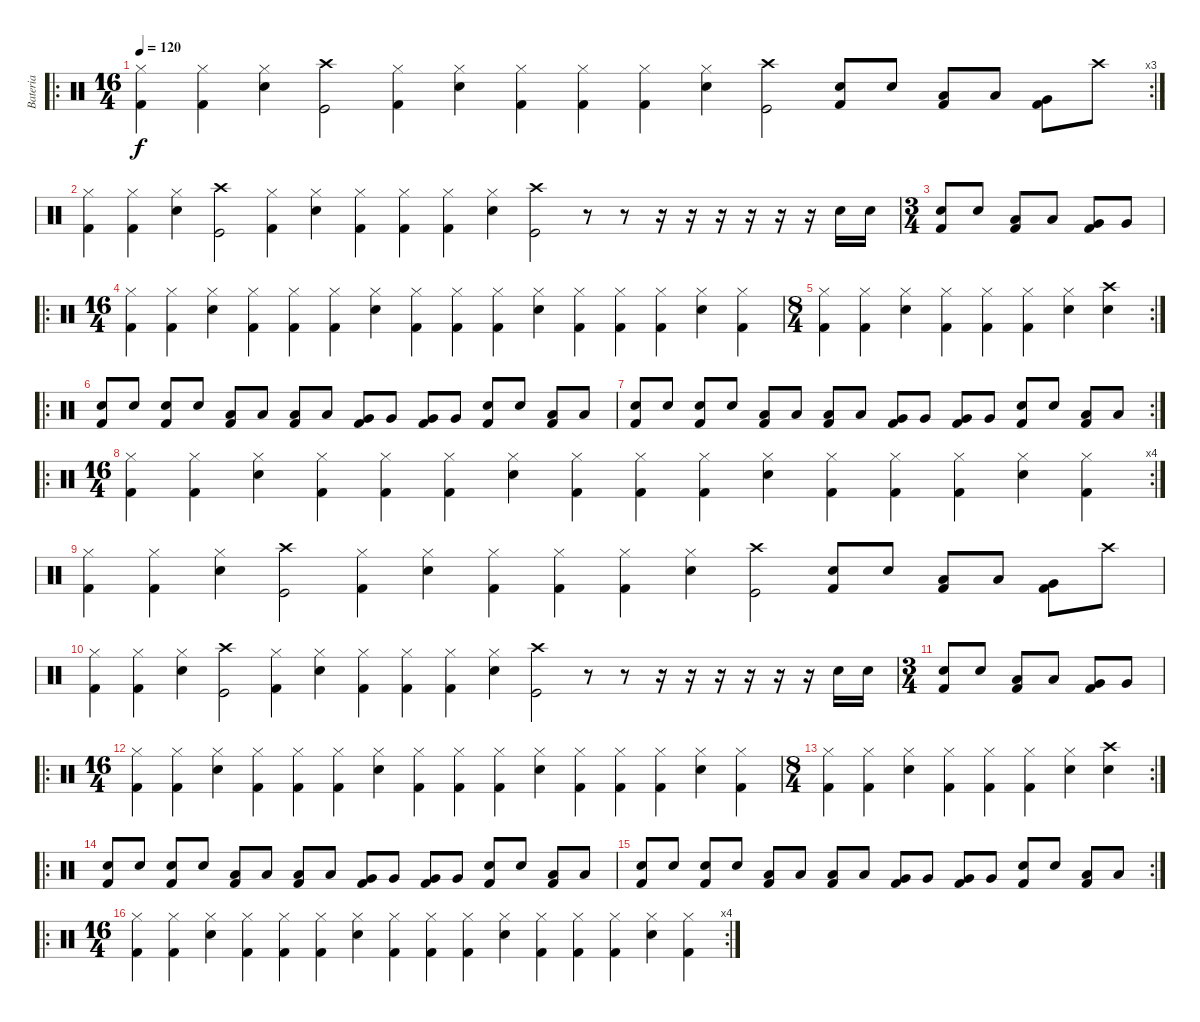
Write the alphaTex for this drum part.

\track ("Bateria" "Bateria") {instrument percussion}
\staff {score}
\articulation defaults
\ro
\rc 3
\ts (16 4)
\tempo 120
\clef neutral
\ks c
("Hi-Hat (closed)" "Kick (hit) 2").4{dy f} ("Hi-Hat (closed)" "Kick (hit) 2").4 ("Hi-Hat (closed)" "Snare (hit) 2").4 ("Kick (hit)" "Crash high (hit)").2 ("Hi-Hat (closed)" "Kick (hit) 2").4 ("Hi-Hat (closed)" "Snare (hit) 2").4 ("Hi-Hat (closed)" "Kick (hit) 2").4 ("Hi-Hat (closed)" "Kick (hit) 2").4 ("Hi-Hat (closed)" "Kick (hit) 2").4 ("Hi-Hat (closed)" "Snare (hit) 2").4 ("Kick (hit)" "Crash high (hit)").2 ("Kick (hit) 2" "Snare (hit) 2").8 "Snare (hit) 2".8 ("Kick (hit) 2" "Low Floor Tom (hit)").8 "Low Floor Tom (hit)".8 ("Kick (hit) 2" "Very Low Tom (hit)").8 "Crash high (hit)".8 |
("Hi-Hat (closed)" "Kick (hit) 2").4 ("Hi-Hat (closed)" "Kick (hit) 2").4 ("Hi-Hat (closed)" "Snare (hit) 2").4 ("Kick (hit)" "Crash high (hit)").2 ("Hi-Hat (closed)" "Kick (hit) 2").4 ("Hi-Hat (closed)" "Snare (hit) 2").4 ("Hi-Hat (closed)" "Kick (hit) 2").4 ("Hi-Hat (closed)" "Kick (hit) 2").4 ("Hi-Hat (closed)" "Kick (hit) 2").4 ("Hi-Hat (closed)" "Snare (hit) 2").4 ("Kick (hit)" "Crash high (hit)").2 r.8 r.8 r.16 r.16 r.16 r.16 r.16 r.16 "Snare (hit) 2".16 "Snare (hit) 2".16 |
\ts (3 4)
("Kick (hit) 2" "Snare (hit) 2").8 "Snare (hit) 2".8 ("Kick (hit) 2" "Low Floor Tom (hit)").8 "Low Floor Tom (hit)".8 ("Kick (hit) 2" "Very Low Tom (hit)").8 "Very Low Tom (hit)".8 |
\ro
\ts (16 4)
("Hi-Hat (closed)" "Kick (hit) 2").4 ("Hi-Hat (closed)" "Kick (hit) 2").4 ("Hi-Hat (closed)" "Snare (hit) 2").4 ("Hi-Hat (closed)" "Kick (hit) 2").4 ("Hi-Hat (closed)" "Kick (hit) 2").4 ("Hi-Hat (closed)" "Kick (hit) 2").4 ("Hi-Hat (closed)" "Snare (hit) 2").4 ("Hi-Hat (closed)" "Kick (hit) 2").4 ("Hi-Hat (closed)" "Kick (hit) 2").4 ("Hi-Hat (closed)" "Kick (hit) 2").4 ("Hi-Hat (closed)" "Snare (hit) 2").4 ("Hi-Hat (closed)" "Kick (hit) 2").4 ("Hi-Hat (closed)" "Kick (hit) 2").4 ("Hi-Hat (closed)" "Kick (hit) 2").4 ("Hi-Hat (closed)" "Snare (hit) 2").4 ("Hi-Hat (closed)" "Kick (hit) 2").4 |
\rc 2
\ts (8 4)
("Hi-Hat (closed)" "Kick (hit) 2").4 ("Hi-Hat (closed)" "Kick (hit) 2").4 ("Hi-Hat (closed)" "Snare (hit) 2").4 ("Hi-Hat (closed)" "Kick (hit) 2").4 ("Hi-Hat (closed)" "Kick (hit) 2").4 ("Hi-Hat (closed)" "Kick (hit) 2").4 ("Hi-Hat (closed)" "Snare (hit) 2").4 ("Crash high (hit)" "Snare (hit) 2").4 |
\ro
("Snare (hit) 2" "Kick (hit) 2").8 "Snare (hit) 2".8 ("Snare (hit) 2" "Kick (hit) 2").8 "Snare (hit) 2".8 ("Low Floor Tom (hit)" "Kick (hit) 2").8 "Low Floor Tom (hit)".8 ("Low Floor Tom (hit)" "Kick (hit) 2").8 "Low Floor Tom (hit)".8 ("Very Low Tom (hit)" "Kick (hit) 2").8 "Very Low Tom (hit)".8 ("Very Low Tom (hit)" "Kick (hit) 2").8 "Very Low Tom (hit)".8 ("Snare (hit) 2" "Kick (hit) 2").8 "Snare (hit) 2".8 ("Low Floor Tom (hit)" "Kick (hit) 2").8 "Low Floor Tom (hit)".8 |
\rc 2
("Snare (hit) 2" "Kick (hit) 2").8 "Snare (hit) 2".8 ("Snare (hit) 2" "Kick (hit) 2").8 "Snare (hit) 2".8 ("Low Floor Tom (hit)" "Kick (hit) 2").8 "Low Floor Tom (hit)".8 ("Low Floor Tom (hit)" "Kick (hit) 2").8 "Low Floor Tom (hit)".8 ("Very Low Tom (hit)" "Kick (hit) 2").8 "Very Low Tom (hit)".8 ("Very Low Tom (hit)" "Kick (hit) 2").8 "Very Low Tom (hit)".8 ("Snare (hit) 2" "Kick (hit) 2").8 "Snare (hit) 2".8 ("Low Floor Tom (hit)" "Kick (hit) 2").8 "Low Floor Tom (hit)".8 |
\ro
\rc 4
\ts (16 4)
("Hi-Hat (closed)" "Kick (hit) 2").4 ("Hi-Hat (closed)" "Kick (hit) 2").4 ("Hi-Hat (closed)" "Snare (hit) 2").4 ("Hi-Hat (closed)" "Kick (hit) 2").4 ("Hi-Hat (closed)" "Kick (hit) 2").4 ("Hi-Hat (closed)" "Kick (hit) 2").4 ("Hi-Hat (closed)" "Snare (hit) 2").4 ("Hi-Hat (closed)" "Kick (hit) 2").4 ("Hi-Hat (closed)" "Kick (hit) 2").4 ("Hi-Hat (closed)" "Kick (hit) 2").4 ("Hi-Hat (closed)" "Snare (hit) 2").4 ("Hi-Hat (closed)" "Kick (hit) 2").4 ("Hi-Hat (closed)" "Kick (hit) 2").4 ("Hi-Hat (closed)" "Kick (hit) 2").4 ("Hi-Hat (closed)" "Snare (hit) 2").4 ("Hi-Hat (closed)" "Kick (hit) 2").4 |
("Hi-Hat (closed)" "Kick (hit) 2").4 ("Hi-Hat (closed)" "Kick (hit) 2").4 ("Hi-Hat (closed)" "Snare (hit) 2").4 ("Kick (hit)" "Crash high (hit)").2 ("Hi-Hat (closed)" "Kick (hit) 2").4 ("Hi-Hat (closed)" "Snare (hit) 2").4 ("Hi-Hat (closed)" "Kick (hit) 2").4 ("Hi-Hat (closed)" "Kick (hit) 2").4 ("Hi-Hat (closed)" "Kick (hit) 2").4 ("Hi-Hat (closed)" "Snare (hit) 2").4 ("Kick (hit)" "Crash high (hit)").2 ("Kick (hit) 2" "Snare (hit) 2").8 "Snare (hit) 2".8 ("Kick (hit) 2" "Low Floor Tom (hit)").8 "Low Floor Tom (hit)".8 ("Kick (hit) 2" "Very Low Tom (hit)").8 "Crash high (hit)".8 |
("Hi-Hat (closed)" "Kick (hit) 2").4 ("Hi-Hat (closed)" "Kick (hit) 2").4 ("Hi-Hat (closed)" "Snare (hit) 2").4 ("Kick (hit)" "Crash high (hit)").2 ("Hi-Hat (closed)" "Kick (hit) 2").4 ("Hi-Hat (closed)" "Snare (hit) 2").4 ("Hi-Hat (closed)" "Kick (hit) 2").4 ("Hi-Hat (closed)" "Kick (hit) 2").4 ("Hi-Hat (closed)" "Kick (hit) 2").4 ("Hi-Hat (closed)" "Snare (hit) 2").4 ("Kick (hit)" "Crash high (hit)").2 r.8 r.8 r.16 r.16 r.16 r.16 r.16 r.16 "Snare (hit) 2".16 "Snare (hit) 2".16 |
\ts (3 4)
("Kick (hit) 2" "Snare (hit) 2").8 "Snare (hit) 2".8 ("Kick (hit) 2" "Low Floor Tom (hit)").8 "Low Floor Tom (hit)".8 ("Kick (hit) 2" "Very Low Tom (hit)").8 "Very Low Tom (hit)".8 |
\ro
\ts (16 4)
("Hi-Hat (closed)" "Kick (hit) 2").4 ("Hi-Hat (closed)" "Kick (hit) 2").4 ("Hi-Hat (closed)" "Snare (hit) 2").4 ("Hi-Hat (closed)" "Kick (hit) 2").4 ("Hi-Hat (closed)" "Kick (hit) 2").4 ("Hi-Hat (closed)" "Kick (hit) 2").4 ("Hi-Hat (closed)" "Snare (hit) 2").4 ("Hi-Hat (closed)" "Kick (hit) 2").4 ("Hi-Hat (closed)" "Kick (hit) 2").4 ("Hi-Hat (closed)" "Kick (hit) 2").4 ("Hi-Hat (closed)" "Snare (hit) 2").4 ("Hi-Hat (closed)" "Kick (hit) 2").4 ("Hi-Hat (closed)" "Kick (hit) 2").4 ("Hi-Hat (closed)" "Kick (hit) 2").4 ("Hi-Hat (closed)" "Snare (hit) 2").4 ("Hi-Hat (closed)" "Kick (hit) 2").4 |
\rc 2
\ts (8 4)
("Hi-Hat (closed)" "Kick (hit) 2").4 ("Hi-Hat (closed)" "Kick (hit) 2").4 ("Hi-Hat (closed)" "Snare (hit) 2").4 ("Hi-Hat (closed)" "Kick (hit) 2").4 ("Hi-Hat (closed)" "Kick (hit) 2").4 ("Hi-Hat (closed)" "Kick (hit) 2").4 ("Hi-Hat (closed)" "Snare (hit) 2").4 ("Crash high (hit)" "Snare (hit) 2").4 |
\ro
("Snare (hit) 2" "Kick (hit) 2").8 "Snare (hit) 2".8 ("Snare (hit) 2" "Kick (hit) 2").8 "Snare (hit) 2".8 ("Low Floor Tom (hit)" "Kick (hit) 2").8 "Low Floor Tom (hit)".8 ("Low Floor Tom (hit)" "Kick (hit) 2").8 "Low Floor Tom (hit)".8 ("Very Low Tom (hit)" "Kick (hit) 2").8 "Very Low Tom (hit)".8 ("Very Low Tom (hit)" "Kick (hit) 2").8 "Very Low Tom (hit)".8 ("Snare (hit) 2" "Kick (hit) 2").8 "Snare (hit) 2".8 ("Low Floor Tom (hit)" "Kick (hit) 2").8 "Low Floor Tom (hit)".8 |
\rc 2
("Snare (hit) 2" "Kick (hit) 2").8 "Snare (hit) 2".8 ("Snare (hit) 2" "Kick (hit) 2").8 "Snare (hit) 2".8 ("Low Floor Tom (hit)" "Kick (hit) 2").8 "Low Floor Tom (hit)".8 ("Low Floor Tom (hit)" "Kick (hit) 2").8 "Low Floor Tom (hit)".8 ("Very Low Tom (hit)" "Kick (hit) 2").8 "Very Low Tom (hit)".8 ("Very Low Tom (hit)" "Kick (hit) 2").8 "Very Low Tom (hit)".8 ("Snare (hit) 2" "Kick (hit) 2").8 "Snare (hit) 2".8 ("Low Floor Tom (hit)" "Kick (hit) 2").8 "Low Floor Tom (hit)".8 |
\ro
\rc 4
\ts (16 4)
("Hi-Hat (closed)" "Kick (hit) 2").4 ("Hi-Hat (closed)" "Kick (hit) 2").4 ("Hi-Hat (closed)" "Snare (hit) 2").4 ("Hi-Hat (closed)" "Kick (hit) 2").4 ("Hi-Hat (closed)" "Kick (hit) 2").4 ("Hi-Hat (closed)" "Kick (hit) 2").4 ("Hi-Hat (closed)" "Snare (hit) 2").4 ("Hi-Hat (closed)" "Kick (hit) 2").4 ("Hi-Hat (closed)" "Kick (hit) 2").4 ("Hi-Hat (closed)" "Kick (hit) 2").4 ("Hi-Hat (closed)" "Snare (hit) 2").4 ("Hi-Hat (closed)" "Kick (hit) 2").4 ("Hi-Hat (closed)" "Kick (hit) 2").4 ("Hi-Hat (closed)" "Kick (hit) 2").4 ("Hi-Hat (closed)" "Snare (hit) 2").4 ("Hi-Hat (closed)" "Kick (hit) 2").4
